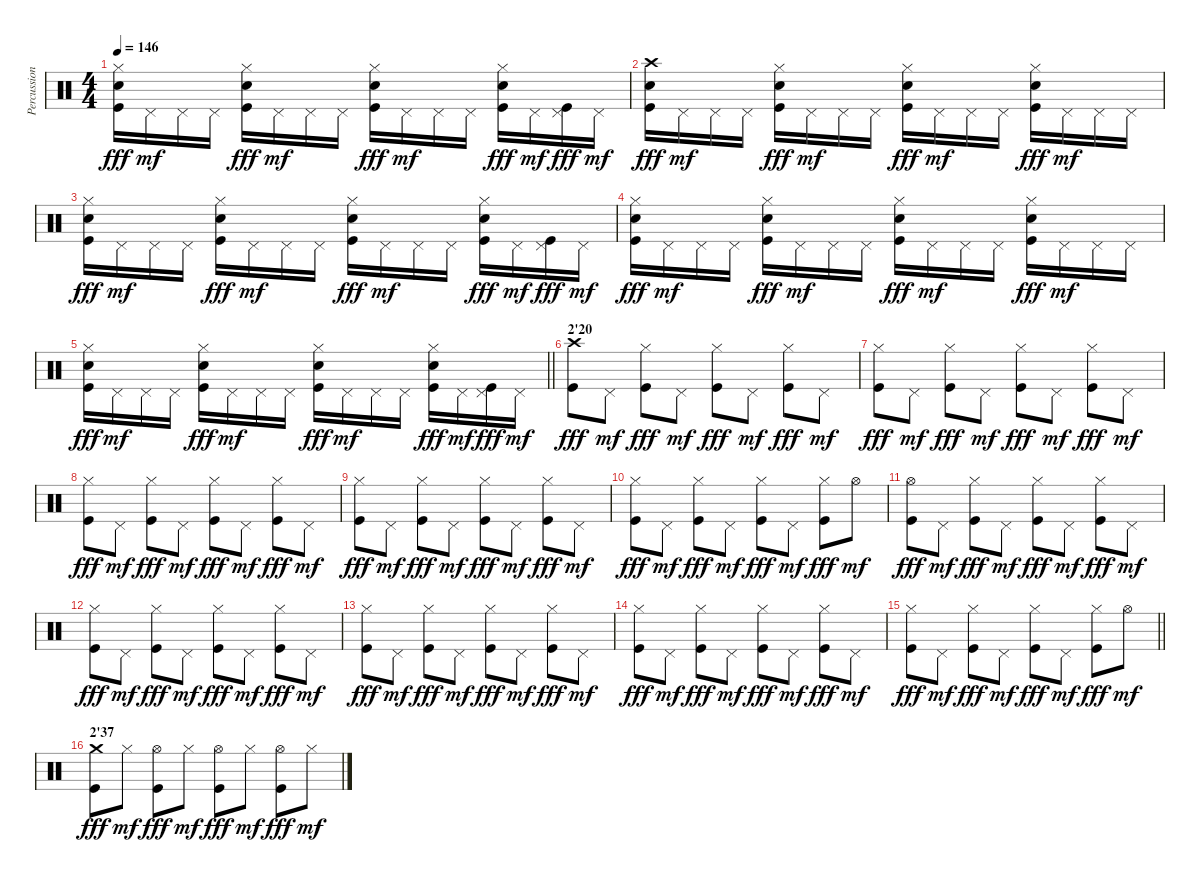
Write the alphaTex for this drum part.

\track ("Percussions" "Percussion") {instrument percussion}
\staff {score}
\articulation defaults
\ts (4 4)
\tempo 146
\clef neutral
\ks c
("Hi-Hat (closed)" "Snare (hit) 2" "Kick (hit)").16{dy fff} "Pedal Hi-Hat (hit)".16{dy mf} "Pedal Hi-Hat (hit)".16 "Pedal Hi-Hat (hit)".16 ("Hi-Hat (closed)" "Snare (hit) 2" "Kick (hit)").16{dy fff} "Pedal Hi-Hat (hit)".16{dy mf} "Pedal Hi-Hat (hit)".16 "Pedal Hi-Hat (hit)".16 ("Hi-Hat (closed)" "Snare (hit) 2" "Kick (hit)").16{dy fff} "Pedal Hi-Hat (hit)".16{dy mf} "Pedal Hi-Hat (hit)".16 "Pedal Hi-Hat (hit)".16 ("Hi-Hat (closed)" "Snare (hit) 2" "Kick (hit)").16{dy fff} "Pedal Hi-Hat (hit)".16{dy mf} ("Pedal Hi-Hat (hit)" "Kick (hit)").16{dy fff} "Pedal Hi-Hat (hit)".16{dy mf} |
("Crash high (hit)" "Snare (hit) 2" "Kick (hit)").16{dy fff} "Pedal Hi-Hat (hit)".16{dy mf} "Pedal Hi-Hat (hit)".16 "Pedal Hi-Hat (hit)".16 ("Hi-Hat (closed)" "Snare (hit) 2" "Kick (hit)").16{dy fff} "Pedal Hi-Hat (hit)".16{dy mf} "Pedal Hi-Hat (hit)".16 "Pedal Hi-Hat (hit)".16 ("Hi-Hat (closed)" "Snare (hit) 2" "Kick (hit)").16{dy fff} "Pedal Hi-Hat (hit)".16{dy mf} "Pedal Hi-Hat (hit)".16 "Pedal Hi-Hat (hit)".16 ("Hi-Hat (closed)" "Snare (hit) 2" "Kick (hit)").16{dy fff} "Pedal Hi-Hat (hit)".16{dy mf} "Pedal Hi-Hat (hit)".16 "Pedal Hi-Hat (hit)".16 |
("Hi-Hat (closed)" "Snare (hit) 2" "Kick (hit)").16{dy fff} "Pedal Hi-Hat (hit)".16{dy mf} "Pedal Hi-Hat (hit)".16 "Pedal Hi-Hat (hit)".16 ("Hi-Hat (closed)" "Snare (hit) 2" "Kick (hit)").16{dy fff} "Pedal Hi-Hat (hit)".16{dy mf} "Pedal Hi-Hat (hit)".16 "Pedal Hi-Hat (hit)".16 ("Hi-Hat (closed)" "Snare (hit) 2" "Kick (hit)").16{dy fff} "Pedal Hi-Hat (hit)".16{dy mf} "Pedal Hi-Hat (hit)".16 "Pedal Hi-Hat (hit)".16 ("Hi-Hat (closed)" "Snare (hit) 2" "Kick (hit)").16{dy fff} "Pedal Hi-Hat (hit)".16{dy mf} ("Pedal Hi-Hat (hit)" "Kick (hit)").16{dy fff} "Pedal Hi-Hat (hit)".16{dy mf} |
("Hi-Hat (closed)" "Snare (hit) 2" "Kick (hit)").16{dy fff} "Pedal Hi-Hat (hit)".16{dy mf} "Pedal Hi-Hat (hit)".16 "Pedal Hi-Hat (hit)".16 ("Hi-Hat (closed)" "Snare (hit) 2" "Kick (hit)").16{dy fff} "Pedal Hi-Hat (hit)".16{dy mf} "Pedal Hi-Hat (hit)".16 "Pedal Hi-Hat (hit)".16 ("Hi-Hat (closed)" "Snare (hit) 2" "Kick (hit)").16{dy fff} "Pedal Hi-Hat (hit)".16{dy mf} "Pedal Hi-Hat (hit)".16 "Pedal Hi-Hat (hit)".16 ("Hi-Hat (closed)" "Snare (hit) 2" "Kick (hit)").16{dy fff} "Pedal Hi-Hat (hit)".16{dy mf} "Pedal Hi-Hat (hit)".16 "Pedal Hi-Hat (hit)".16 |
\barLineRight lightlight
("Hi-Hat (closed)" "Snare (hit) 2" "Kick (hit)").16{dy fff} "Pedal Hi-Hat (hit)".16{dy mf} "Pedal Hi-Hat (hit)".16 "Pedal Hi-Hat (hit)".16 ("Hi-Hat (closed)" "Snare (hit) 2" "Kick (hit)").16{dy fff} "Pedal Hi-Hat (hit)".16{dy mf} "Pedal Hi-Hat (hit)".16 "Pedal Hi-Hat (hit)".16 ("Hi-Hat (closed)" "Snare (hit) 2" "Kick (hit)").16{dy fff} "Pedal Hi-Hat (hit)".16{dy mf} "Pedal Hi-Hat (hit)".16 "Pedal Hi-Hat (hit)".16 ("Hi-Hat (closed)" "Snare (hit) 2" "Kick (hit)").16{dy fff} "Pedal Hi-Hat (hit)".16{dy mf} ("Pedal Hi-Hat (hit)" "Kick (hit)").16{dy fff} "Pedal Hi-Hat (hit)".16{dy mf} |
\section ("" "2'20")
("Crash high (hit)" "Kick (hit)").8{dy fff} "Pedal Hi-Hat (hit)".8{dy mf} ("Hi-Hat (closed)" "Kick (hit)").8{dy fff} "Pedal Hi-Hat (hit)".8{dy mf} ("Hi-Hat (closed)" "Kick (hit)").8{dy fff} "Pedal Hi-Hat (hit)".8{dy mf} ("Hi-Hat (closed)" "Kick (hit)").8{dy fff} "Pedal Hi-Hat (hit)".8{dy mf} |
("Hi-Hat (closed)" "Kick (hit)").8{dy fff} "Pedal Hi-Hat (hit)".8{dy mf} ("Hi-Hat (closed)" "Kick (hit)").8{dy fff} "Pedal Hi-Hat (hit)".8{dy mf} ("Hi-Hat (closed)" "Kick (hit)").8{dy fff} "Pedal Hi-Hat (hit)".8{dy mf} ("Hi-Hat (closed)" "Kick (hit)").8{dy fff} "Pedal Hi-Hat (hit)".8{dy mf} |
("Hi-Hat (closed)" "Kick (hit)").8{dy fff} "Pedal Hi-Hat (hit)".8{dy mf} ("Hi-Hat (closed)" "Kick (hit)").8{dy fff} "Pedal Hi-Hat (hit)".8{dy mf} ("Hi-Hat (closed)" "Kick (hit)").8{dy fff} "Pedal Hi-Hat (hit)".8{dy mf} ("Hi-Hat (closed)" "Kick (hit)").8{dy fff} "Pedal Hi-Hat (hit)".8{dy mf} |
("Hi-Hat (closed)" "Kick (hit)").8{dy fff} "Pedal Hi-Hat (hit)".8{dy mf} ("Hi-Hat (closed)" "Kick (hit)").8{dy fff} "Pedal Hi-Hat (hit)".8{dy mf} ("Hi-Hat (closed)" "Kick (hit)").8{dy fff} "Pedal Hi-Hat (hit)".8{dy mf} ("Hi-Hat (closed)" "Kick (hit)").8{dy fff} "Pedal Hi-Hat (hit)".8{dy mf} |
("Hi-Hat (closed)" "Kick (hit)").8{dy fff} "Pedal Hi-Hat (hit)".8{dy mf} ("Hi-Hat (closed)" "Kick (hit)").8{dy fff} "Pedal Hi-Hat (hit)".8{dy mf} ("Hi-Hat (closed)" "Kick (hit)").8{dy fff} "Pedal Hi-Hat (hit)".8{dy mf} ("Hi-Hat (closed)" "Kick (hit)").8{dy fff} "Hi-Hat (open)".8{dy mf} |
("Hi-Hat (open)" "Kick (hit)").8{dy fff} "Pedal Hi-Hat (hit)".8{dy mf} ("Hi-Hat (closed)" "Kick (hit)").8{dy fff} "Pedal Hi-Hat (hit)".8{dy mf} ("Hi-Hat (closed)" "Kick (hit)").8{dy fff} "Pedal Hi-Hat (hit)".8{dy mf} ("Hi-Hat (closed)" "Kick (hit)").8{dy fff} "Pedal Hi-Hat (hit)".8{dy mf} |
("Hi-Hat (closed)" "Kick (hit)").8{dy fff} "Pedal Hi-Hat (hit)".8{dy mf} ("Hi-Hat (closed)" "Kick (hit)").8{dy fff} "Pedal Hi-Hat (hit)".8{dy mf} ("Hi-Hat (closed)" "Kick (hit)").8{dy fff} "Pedal Hi-Hat (hit)".8{dy mf} ("Hi-Hat (closed)" "Kick (hit)").8{dy fff} "Pedal Hi-Hat (hit)".8{dy mf} |
("Hi-Hat (closed)" "Kick (hit)").8{dy fff} "Pedal Hi-Hat (hit)".8{dy mf} ("Hi-Hat (closed)" "Kick (hit)").8{dy fff} "Pedal Hi-Hat (hit)".8{dy mf} ("Hi-Hat (closed)" "Kick (hit)").8{dy fff} "Pedal Hi-Hat (hit)".8{dy mf} ("Hi-Hat (closed)" "Kick (hit)").8{dy fff} "Pedal Hi-Hat (hit)".8{dy mf} |
("Hi-Hat (closed)" "Kick (hit)").8{dy fff} "Pedal Hi-Hat (hit)".8{dy mf} ("Hi-Hat (closed)" "Kick (hit)").8{dy fff} "Pedal Hi-Hat (hit)".8{dy mf} ("Hi-Hat (closed)" "Kick (hit)").8{dy fff} "Pedal Hi-Hat (hit)".8{dy mf} ("Hi-Hat (closed)" "Kick (hit)").8{dy fff} "Pedal Hi-Hat (hit)".8{dy mf} |
\barLineRight lightlight
("Hi-Hat (closed)" "Kick (hit)").8{dy fff} "Pedal Hi-Hat (hit)".8{dy mf} ("Hi-Hat (closed)" "Kick (hit)").8{dy fff} "Pedal Hi-Hat (hit)".8{dy mf} ("Hi-Hat (closed)" "Kick (hit)").8{dy fff} "Pedal Hi-Hat (hit)".8{dy mf} ("Hi-Hat (closed)" "Kick (hit)").8{dy fff} "Hi-Hat (open)".8{dy mf} |
\section ("" "2'37")
("Crash medium (hit)" "Kick (hit)").8{dy fff} "Hi-Hat (closed)".8{dy mf} ("Hi-Hat (open)" "Kick (hit)").8{dy fff} "Hi-Hat (closed)".8{dy mf} ("Hi-Hat (open)" "Kick (hit)").8{dy fff} "Hi-Hat (closed)".8{dy mf} ("Hi-Hat (open)" "Kick (hit)").8{dy fff} "Hi-Hat (closed)".8{dy mf}
